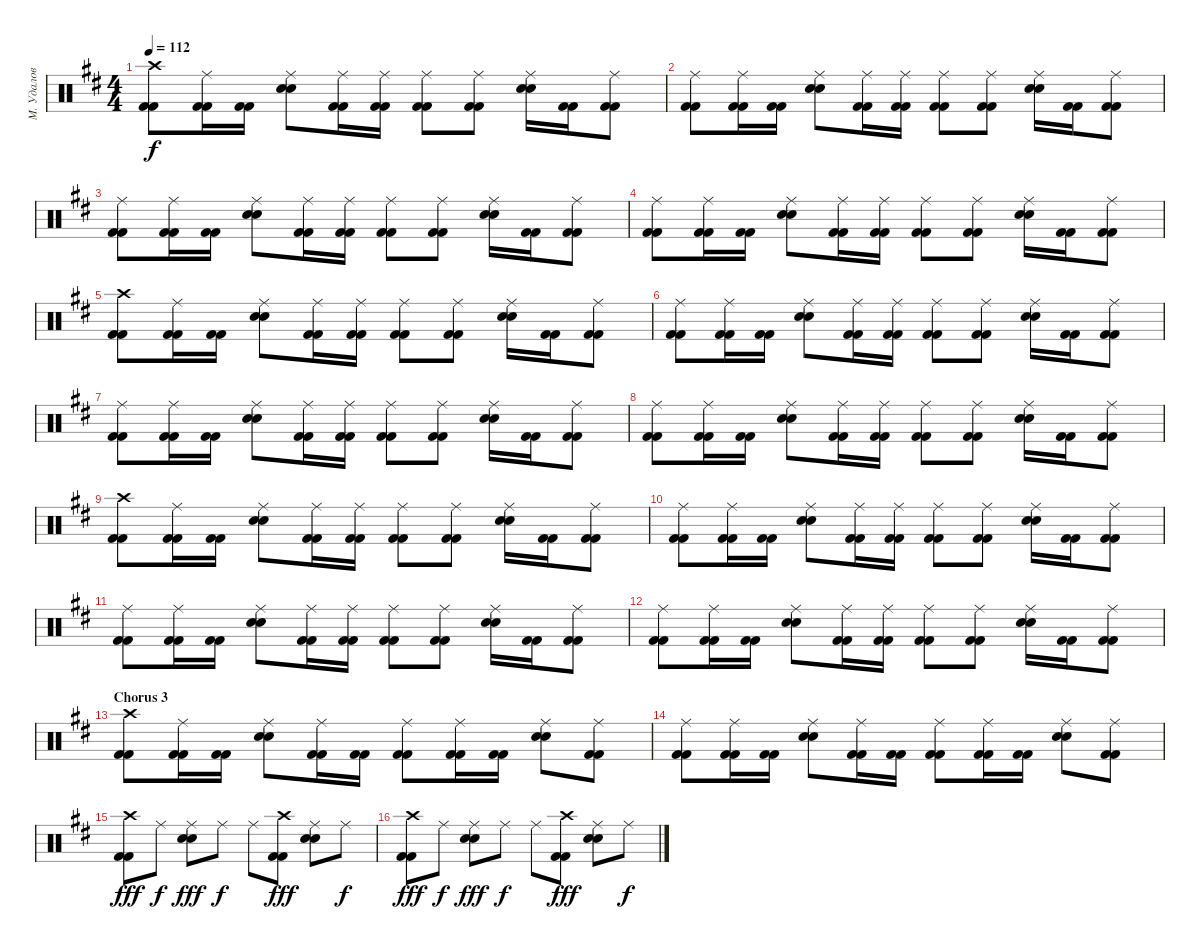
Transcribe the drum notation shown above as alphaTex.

\track ("М. Удалов" "М. Удалов") {instrument percussion}
\staff {score}
\articulation defaults
\ts (4 4)
\tempo 112
\clef neutral
\ks d
("Crash high (hit)" "Kick (hit) 2" "Kick (hit) 2").8{dy f} ("Ride (middle)" "Kick (hit) 2" "Kick (hit) 2").16 ("Kick (hit) 2" "Kick (hit) 2").16 ("Ride (middle)" "Electric Snare (hit)" "Electric Snare (hit)").8 ("Ride (middle)" "Kick (hit) 2" "Kick (hit) 2").16 ("Ride (middle)" "Kick (hit) 2" "Kick (hit) 2").16 ("Ride (middle)" "Kick (hit) 2" "Kick (hit) 2").8 ("Ride (middle)" "Kick (hit) 2" "Kick (hit) 2").8 ("Ride (middle)" "Electric Snare (hit)" "Electric Snare (hit)").16 ("Kick (hit) 2" "Kick (hit) 2").16 ("Ride (middle)" "Kick (hit) 2" "Kick (hit) 2").8 |
("Ride (middle)" "Kick (hit) 2" "Kick (hit) 2").8 ("Ride (middle)" "Kick (hit) 2" "Kick (hit) 2").16 ("Kick (hit) 2" "Kick (hit) 2").16 ("Ride (middle)" "Electric Snare (hit)" "Electric Snare (hit)").8 ("Ride (middle)" "Kick (hit) 2" "Kick (hit) 2").16 ("Ride (middle)" "Kick (hit) 2" "Kick (hit) 2").16 ("Ride (middle)" "Kick (hit) 2" "Kick (hit) 2").8 ("Ride (middle)" "Kick (hit) 2" "Kick (hit) 2").8 ("Ride (middle)" "Electric Snare (hit)" "Electric Snare (hit)").16 ("Kick (hit) 2" "Kick (hit) 2").16 ("Ride (middle)" "Kick (hit) 2" "Kick (hit) 2").8 |
("Ride (middle)" "Kick (hit) 2" "Kick (hit) 2").8 ("Ride (middle)" "Kick (hit) 2" "Kick (hit) 2").16 ("Kick (hit) 2" "Kick (hit) 2").16 ("Ride (middle)" "Electric Snare (hit)" "Electric Snare (hit)").8 ("Ride (middle)" "Kick (hit) 2" "Kick (hit) 2").16 ("Ride (middle)" "Kick (hit) 2" "Kick (hit) 2").16 ("Ride (middle)" "Kick (hit) 2" "Kick (hit) 2").8 ("Ride (middle)" "Kick (hit) 2" "Kick (hit) 2").8 ("Ride (middle)" "Electric Snare (hit)" "Electric Snare (hit)").16 ("Kick (hit) 2" "Kick (hit) 2").16 ("Ride (middle)" "Kick (hit) 2" "Kick (hit) 2").8 |
("Ride (middle)" "Kick (hit) 2" "Kick (hit) 2").8 ("Ride (middle)" "Kick (hit) 2" "Kick (hit) 2").16 ("Kick (hit) 2" "Kick (hit) 2").16 ("Ride (middle)" "Electric Snare (hit)" "Electric Snare (hit)").8 ("Ride (middle)" "Kick (hit) 2" "Kick (hit) 2").16 ("Ride (middle)" "Kick (hit) 2" "Kick (hit) 2").16 ("Ride (middle)" "Kick (hit) 2" "Kick (hit) 2").8 ("Ride (middle)" "Kick (hit) 2" "Kick (hit) 2").8 ("Ride (middle)" "Electric Snare (hit)" "Electric Snare (hit)").16 ("Kick (hit) 2" "Kick (hit) 2").16 ("Ride (middle)" "Kick (hit) 2" "Kick (hit) 2").8 |
("Crash high (hit)" "Kick (hit) 2" "Kick (hit) 2").8 ("Ride (middle)" "Kick (hit) 2" "Kick (hit) 2").16 ("Kick (hit) 2" "Kick (hit) 2").16 ("Ride (middle)" "Electric Snare (hit)" "Electric Snare (hit)").8 ("Ride (middle)" "Kick (hit) 2" "Kick (hit) 2").16 ("Ride (middle)" "Kick (hit) 2" "Kick (hit) 2").16 ("Ride (middle)" "Kick (hit) 2" "Kick (hit) 2").8 ("Ride (middle)" "Kick (hit) 2" "Kick (hit) 2").8 ("Ride (middle)" "Electric Snare (hit)" "Electric Snare (hit)").16 ("Kick (hit) 2" "Kick (hit) 2").16 ("Ride (middle)" "Kick (hit) 2" "Kick (hit) 2").8 |
("Ride (middle)" "Kick (hit) 2" "Kick (hit) 2").8 ("Ride (middle)" "Kick (hit) 2" "Kick (hit) 2").16 ("Kick (hit) 2" "Kick (hit) 2").16 ("Ride (middle)" "Electric Snare (hit)" "Electric Snare (hit)").8 ("Ride (middle)" "Kick (hit) 2" "Kick (hit) 2").16 ("Ride (middle)" "Kick (hit) 2" "Kick (hit) 2").16 ("Ride (middle)" "Kick (hit) 2" "Kick (hit) 2").8 ("Ride (middle)" "Kick (hit) 2" "Kick (hit) 2").8 ("Ride (middle)" "Electric Snare (hit)" "Electric Snare (hit)").16 ("Kick (hit) 2" "Kick (hit) 2").16 ("Ride (middle)" "Kick (hit) 2" "Kick (hit) 2").8 |
("Ride (middle)" "Kick (hit) 2" "Kick (hit) 2").8 ("Ride (middle)" "Kick (hit) 2" "Kick (hit) 2").16 ("Kick (hit) 2" "Kick (hit) 2").16 ("Ride (middle)" "Electric Snare (hit)" "Electric Snare (hit)").8 ("Ride (middle)" "Kick (hit) 2" "Kick (hit) 2").16 ("Ride (middle)" "Kick (hit) 2" "Kick (hit) 2").16 ("Ride (middle)" "Kick (hit) 2" "Kick (hit) 2").8 ("Ride (middle)" "Kick (hit) 2" "Kick (hit) 2").8 ("Ride (middle)" "Electric Snare (hit)" "Electric Snare (hit)").16 ("Kick (hit) 2" "Kick (hit) 2").16 ("Ride (middle)" "Kick (hit) 2" "Kick (hit) 2").8 |
("Ride (middle)" "Kick (hit) 2" "Kick (hit) 2").8 ("Ride (middle)" "Kick (hit) 2" "Kick (hit) 2").16 ("Kick (hit) 2" "Kick (hit) 2").16 ("Ride (middle)" "Electric Snare (hit)" "Electric Snare (hit)").8 ("Ride (middle)" "Kick (hit) 2" "Kick (hit) 2").16 ("Ride (middle)" "Kick (hit) 2" "Kick (hit) 2").16 ("Ride (middle)" "Kick (hit) 2" "Kick (hit) 2").8 ("Ride (middle)" "Kick (hit) 2" "Kick (hit) 2").8 ("Ride (middle)" "Electric Snare (hit)" "Electric Snare (hit)").16 ("Kick (hit) 2" "Kick (hit) 2").16 ("Ride (middle)" "Kick (hit) 2" "Kick (hit) 2").8 |
("Crash high (hit)" "Kick (hit) 2" "Kick (hit) 2").8 ("Ride (middle)" "Kick (hit) 2" "Kick (hit) 2").16 ("Kick (hit) 2" "Kick (hit) 2").16 ("Ride (middle)" "Electric Snare (hit)" "Electric Snare (hit)").8 ("Ride (middle)" "Kick (hit) 2" "Kick (hit) 2").16 ("Ride (middle)" "Kick (hit) 2" "Kick (hit) 2").16 ("Ride (middle)" "Kick (hit) 2" "Kick (hit) 2").8 ("Ride (middle)" "Kick (hit) 2" "Kick (hit) 2").8 ("Ride (middle)" "Electric Snare (hit)" "Electric Snare (hit)").16 ("Kick (hit) 2" "Kick (hit) 2").16 ("Ride (middle)" "Kick (hit) 2" "Kick (hit) 2").8 |
("Ride (middle)" "Kick (hit) 2" "Kick (hit) 2").8 ("Ride (middle)" "Kick (hit) 2" "Kick (hit) 2").16 ("Kick (hit) 2" "Kick (hit) 2").16 ("Ride (middle)" "Electric Snare (hit)" "Electric Snare (hit)").8 ("Ride (middle)" "Kick (hit) 2" "Kick (hit) 2").16 ("Ride (middle)" "Kick (hit) 2" "Kick (hit) 2").16 ("Ride (middle)" "Kick (hit) 2" "Kick (hit) 2").8 ("Ride (middle)" "Kick (hit) 2" "Kick (hit) 2").8 ("Ride (middle)" "Electric Snare (hit)" "Electric Snare (hit)").16 ("Kick (hit) 2" "Kick (hit) 2").16 ("Ride (middle)" "Kick (hit) 2" "Kick (hit) 2").8 |
("Ride (middle)" "Kick (hit) 2" "Kick (hit) 2").8 ("Ride (middle)" "Kick (hit) 2" "Kick (hit) 2").16 ("Kick (hit) 2" "Kick (hit) 2").16 ("Ride (middle)" "Electric Snare (hit)" "Electric Snare (hit)").8 ("Ride (middle)" "Kick (hit) 2" "Kick (hit) 2").16 ("Ride (middle)" "Kick (hit) 2" "Kick (hit) 2").16 ("Ride (middle)" "Kick (hit) 2" "Kick (hit) 2").8 ("Ride (middle)" "Kick (hit) 2" "Kick (hit) 2").8 ("Ride (middle)" "Electric Snare (hit)" "Electric Snare (hit)").16 ("Kick (hit) 2" "Kick (hit) 2").16 ("Ride (middle)" "Kick (hit) 2" "Kick (hit) 2").8 |
("Ride (middle)" "Kick (hit) 2" "Kick (hit) 2").8 ("Ride (middle)" "Kick (hit) 2" "Kick (hit) 2").16 ("Kick (hit) 2" "Kick (hit) 2").16 ("Ride (middle)" "Electric Snare (hit)" "Electric Snare (hit)").8 ("Ride (middle)" "Kick (hit) 2" "Kick (hit) 2").16 ("Ride (middle)" "Kick (hit) 2" "Kick (hit) 2").16 ("Ride (middle)" "Kick (hit) 2" "Kick (hit) 2").8 ("Ride (middle)" "Kick (hit) 2" "Kick (hit) 2").8 ("Ride (middle)" "Electric Snare (hit)" "Electric Snare (hit)").16 ("Kick (hit) 2" "Kick (hit) 2").16 ("Ride (middle)" "Kick (hit) 2" "Kick (hit) 2").8 |
\section ("" "Chorus 3")
("Crash high (hit)" "Kick (hit) 2" "Kick (hit) 2").8 ("Ride (middle)" "Kick (hit) 2" "Kick (hit) 2").16 ("Kick (hit) 2" "Kick (hit) 2").16 ("Ride (middle)" "Electric Snare (hit)" "Electric Snare (hit)").8 ("Ride (middle)" "Kick (hit) 2" "Kick (hit) 2").16 ("Kick (hit) 2" "Kick (hit) 2").16 ("Ride (middle)" "Kick (hit) 2" "Kick (hit) 2").8 ("Ride (middle)" "Kick (hit) 2" "Kick (hit) 2").16 ("Kick (hit) 2" "Kick (hit) 2").16 ("Ride (middle)" "Electric Snare (hit)" "Electric Snare (hit)").8 ("Ride (middle)" "Kick (hit) 2" "Kick (hit) 2").8 |
("Ride (middle)" "Kick (hit) 2" "Kick (hit) 2").8 ("Ride (middle)" "Kick (hit) 2" "Kick (hit) 2").16 ("Kick (hit) 2" "Kick (hit) 2").16 ("Ride (middle)" "Electric Snare (hit)" "Electric Snare (hit)").8 ("Ride (middle)" "Kick (hit) 2" "Kick (hit) 2").16 ("Kick (hit) 2" "Kick (hit) 2").16 ("Ride (middle)" "Kick (hit) 2" "Kick (hit) 2").8 ("Ride (middle)" "Kick (hit) 2" "Kick (hit) 2").16 ("Kick (hit) 2" "Kick (hit) 2").16 ("Ride (middle)" "Electric Snare (hit)" "Electric Snare (hit)").8 ("Ride (middle)" "Kick (hit) 2" "Kick (hit) 2").8 |
("Crash high (hit)" "Kick (hit) 2" "Kick (hit) 2").8{dy fff} "Ride (middle)".8{dy f} ("Ride (middle)" "Electric Snare (hit)" "Electric Snare (hit)").8{dy fff} "Ride (middle)".8{dy f} "Ride (middle)".8 ("Crash high (hit)" "Kick (hit) 2" "Kick (hit) 2").8{dy fff} ("Ride (middle)" "Electric Snare (hit)" "Electric Snare (hit)").8 "Ride (middle)".8{dy f} |
("Crash high (hit)" "Kick (hit) 2" "Kick (hit) 2").8{dy fff} "Ride (middle)".8{dy f} ("Ride (middle)" "Electric Snare (hit)" "Electric Snare (hit)").8{dy fff} "Ride (middle)".8{dy f} "Ride (middle)".8 ("Crash high (hit)" "Kick (hit) 2" "Kick (hit) 2").8{dy fff} ("Ride (middle)" "Electric Snare (hit)" "Electric Snare (hit)").8 "Ride (middle)".8{dy f}
